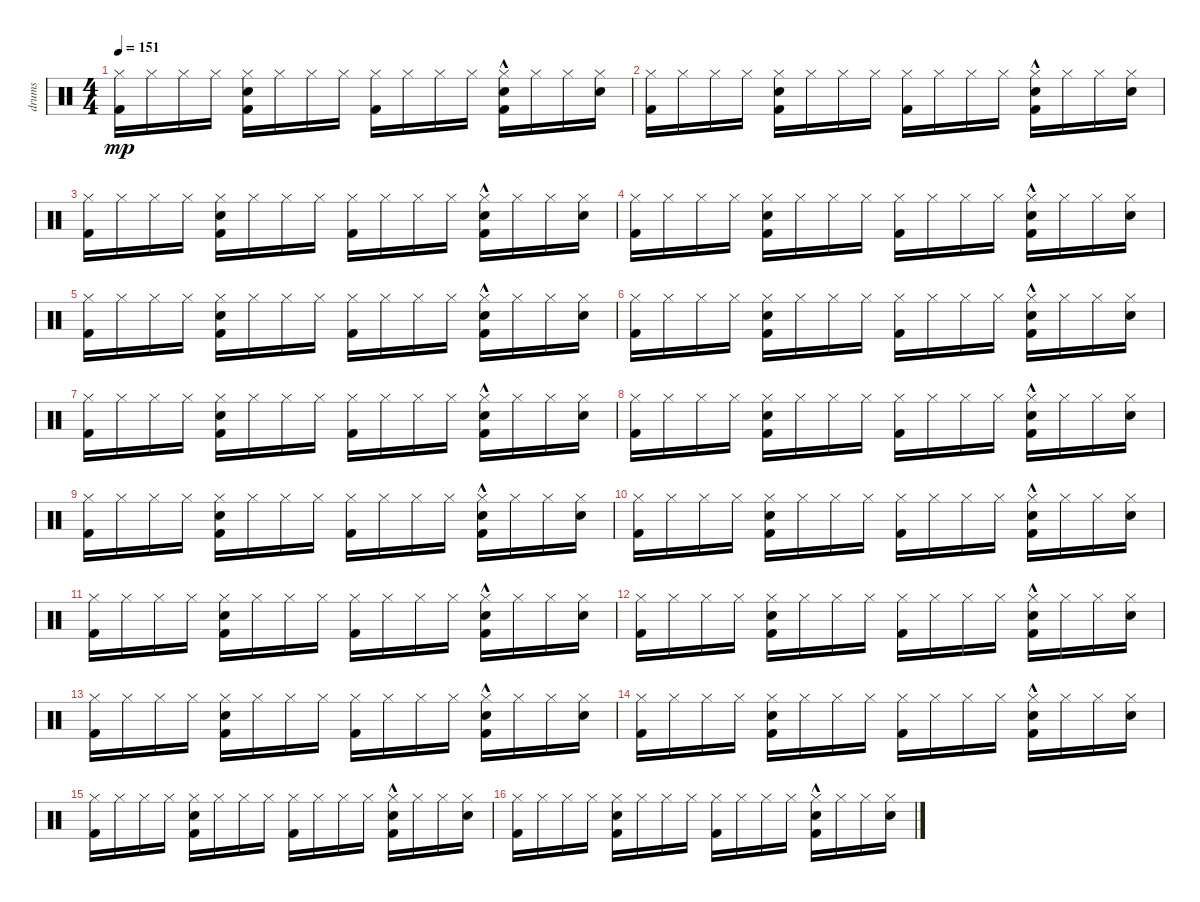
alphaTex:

\track ("drums" "drums") {instrument percussion}
\staff {score}
\articulation defaults
\ts (4 4)
\tempo 151
\clef neutral
\ks c
("Hi-Hat (closed)" "Kick (hit) 2").16{dy mp} "Hi-Hat (closed)".16 "Hi-Hat (closed)".16 "Hi-Hat (closed)".16 ("Hi-Hat (closed)" "Kick (hit) 2" "Snare (hit) 2").16 "Hi-Hat (closed)".16 "Hi-Hat (closed)".16 "Hi-Hat (closed)".16 ("Hi-Hat (closed)" "Kick (hit) 2").16 "Hi-Hat (closed)".16 "Hi-Hat (closed)".16 "Hi-Hat (closed)".16 ("Hi-Hat (closed)" "Kick (hit) 2"{hac} "Snare (hit) 2"{hac}).16 "Hi-Hat (closed)".16 "Hi-Hat (closed)".16 ("Hi-Hat (closed)" "Snare (hit) 2").16 |
("Hi-Hat (closed)" "Kick (hit) 2").16 "Hi-Hat (closed)".16 "Hi-Hat (closed)".16 "Hi-Hat (closed)".16 ("Hi-Hat (closed)" "Kick (hit) 2" "Snare (hit) 2").16 "Hi-Hat (closed)".16 "Hi-Hat (closed)".16 "Hi-Hat (closed)".16 ("Hi-Hat (closed)" "Kick (hit) 2").16 "Hi-Hat (closed)".16 "Hi-Hat (closed)".16 "Hi-Hat (closed)".16 ("Hi-Hat (closed)" "Kick (hit) 2"{hac} "Snare (hit) 2"{hac}).16 "Hi-Hat (closed)".16 "Hi-Hat (closed)".16 ("Hi-Hat (closed)" "Snare (hit) 2").16 |
("Hi-Hat (closed)" "Kick (hit) 2").16 "Hi-Hat (closed)".16 "Hi-Hat (closed)".16 "Hi-Hat (closed)".16 ("Hi-Hat (closed)" "Kick (hit) 2" "Snare (hit) 2").16 "Hi-Hat (closed)".16 "Hi-Hat (closed)".16 "Hi-Hat (closed)".16 ("Hi-Hat (closed)" "Kick (hit) 2").16 "Hi-Hat (closed)".16 "Hi-Hat (closed)".16 "Hi-Hat (closed)".16 ("Hi-Hat (closed)" "Kick (hit) 2"{hac} "Snare (hit) 2"{hac}).16 "Hi-Hat (closed)".16 "Hi-Hat (closed)".16 ("Hi-Hat (closed)" "Snare (hit) 2").16 |
("Hi-Hat (closed)" "Kick (hit) 2").16 "Hi-Hat (closed)".16 "Hi-Hat (closed)".16 "Hi-Hat (closed)".16 ("Hi-Hat (closed)" "Kick (hit) 2" "Snare (hit) 2").16 "Hi-Hat (closed)".16 "Hi-Hat (closed)".16 "Hi-Hat (closed)".16 ("Hi-Hat (closed)" "Kick (hit) 2").16 "Hi-Hat (closed)".16 "Hi-Hat (closed)".16 "Hi-Hat (closed)".16 ("Hi-Hat (closed)" "Kick (hit) 2"{hac} "Snare (hit) 2"{hac}).16 "Hi-Hat (closed)".16 "Hi-Hat (closed)".16 ("Hi-Hat (closed)" "Snare (hit) 2").16 |
("Hi-Hat (closed)" "Kick (hit) 2").16 "Hi-Hat (closed)".16 "Hi-Hat (closed)".16 "Hi-Hat (closed)".16 ("Hi-Hat (closed)" "Kick (hit) 2" "Snare (hit) 2").16 "Hi-Hat (closed)".16 "Hi-Hat (closed)".16 "Hi-Hat (closed)".16 ("Hi-Hat (closed)" "Kick (hit) 2").16 "Hi-Hat (closed)".16 "Hi-Hat (closed)".16 "Hi-Hat (closed)".16 ("Hi-Hat (closed)" "Kick (hit) 2"{hac} "Snare (hit) 2"{hac}).16 "Hi-Hat (closed)".16 "Hi-Hat (closed)".16 ("Hi-Hat (closed)" "Snare (hit) 2").16 |
("Hi-Hat (closed)" "Kick (hit) 2").16 "Hi-Hat (closed)".16 "Hi-Hat (closed)".16 "Hi-Hat (closed)".16 ("Hi-Hat (closed)" "Kick (hit) 2" "Snare (hit) 2").16 "Hi-Hat (closed)".16 "Hi-Hat (closed)".16 "Hi-Hat (closed)".16 ("Hi-Hat (closed)" "Kick (hit) 2").16 "Hi-Hat (closed)".16 "Hi-Hat (closed)".16 "Hi-Hat (closed)".16 ("Hi-Hat (closed)" "Kick (hit) 2"{hac} "Snare (hit) 2"{hac}).16 "Hi-Hat (closed)".16 "Hi-Hat (closed)".16 ("Hi-Hat (closed)" "Snare (hit) 2").16 |
("Hi-Hat (closed)" "Kick (hit) 2").16 "Hi-Hat (closed)".16 "Hi-Hat (closed)".16 "Hi-Hat (closed)".16 ("Hi-Hat (closed)" "Kick (hit) 2" "Snare (hit) 2").16 "Hi-Hat (closed)".16 "Hi-Hat (closed)".16 "Hi-Hat (closed)".16 ("Hi-Hat (closed)" "Kick (hit) 2").16 "Hi-Hat (closed)".16 "Hi-Hat (closed)".16 "Hi-Hat (closed)".16 ("Hi-Hat (closed)" "Kick (hit) 2"{hac} "Snare (hit) 2"{hac}).16 "Hi-Hat (closed)".16 "Hi-Hat (closed)".16 ("Hi-Hat (closed)" "Snare (hit) 2").16 |
("Hi-Hat (closed)" "Kick (hit) 2").16 "Hi-Hat (closed)".16 "Hi-Hat (closed)".16 "Hi-Hat (closed)".16 ("Hi-Hat (closed)" "Kick (hit) 2" "Snare (hit) 2").16 "Hi-Hat (closed)".16 "Hi-Hat (closed)".16 "Hi-Hat (closed)".16 ("Hi-Hat (closed)" "Kick (hit) 2").16 "Hi-Hat (closed)".16 "Hi-Hat (closed)".16 "Hi-Hat (closed)".16 ("Hi-Hat (closed)" "Kick (hit) 2"{hac} "Snare (hit) 2"{hac}).16 "Hi-Hat (closed)".16 "Hi-Hat (closed)".16 ("Hi-Hat (closed)" "Snare (hit) 2").16 |
("Hi-Hat (closed)" "Kick (hit) 2").16 "Hi-Hat (closed)".16 "Hi-Hat (closed)".16 "Hi-Hat (closed)".16 ("Hi-Hat (closed)" "Kick (hit) 2" "Snare (hit) 2").16 "Hi-Hat (closed)".16 "Hi-Hat (closed)".16 "Hi-Hat (closed)".16 ("Hi-Hat (closed)" "Kick (hit) 2").16 "Hi-Hat (closed)".16 "Hi-Hat (closed)".16 "Hi-Hat (closed)".16 ("Hi-Hat (closed)" "Kick (hit) 2"{hac} "Snare (hit) 2"{hac}).16 "Hi-Hat (closed)".16 "Hi-Hat (closed)".16 ("Hi-Hat (closed)" "Snare (hit) 2").16 |
("Hi-Hat (closed)" "Kick (hit) 2").16 "Hi-Hat (closed)".16 "Hi-Hat (closed)".16 "Hi-Hat (closed)".16 ("Hi-Hat (closed)" "Kick (hit) 2" "Snare (hit) 2").16 "Hi-Hat (closed)".16 "Hi-Hat (closed)".16 "Hi-Hat (closed)".16 ("Hi-Hat (closed)" "Kick (hit) 2").16 "Hi-Hat (closed)".16 "Hi-Hat (closed)".16 "Hi-Hat (closed)".16 ("Hi-Hat (closed)" "Kick (hit) 2"{hac} "Snare (hit) 2"{hac}).16 "Hi-Hat (closed)".16 "Hi-Hat (closed)".16 ("Hi-Hat (closed)" "Snare (hit) 2").16 |
("Hi-Hat (closed)" "Kick (hit) 2").16 "Hi-Hat (closed)".16 "Hi-Hat (closed)".16 "Hi-Hat (closed)".16 ("Hi-Hat (closed)" "Kick (hit) 2" "Snare (hit) 2").16 "Hi-Hat (closed)".16 "Hi-Hat (closed)".16 "Hi-Hat (closed)".16 ("Hi-Hat (closed)" "Kick (hit) 2").16 "Hi-Hat (closed)".16 "Hi-Hat (closed)".16 "Hi-Hat (closed)".16 ("Hi-Hat (closed)" "Kick (hit) 2"{hac} "Snare (hit) 2"{hac}).16 "Hi-Hat (closed)".16 "Hi-Hat (closed)".16 ("Hi-Hat (closed)" "Snare (hit) 2").16 |
("Hi-Hat (closed)" "Kick (hit) 2").16 "Hi-Hat (closed)".16 "Hi-Hat (closed)".16 "Hi-Hat (closed)".16 ("Hi-Hat (closed)" "Kick (hit) 2" "Snare (hit) 2").16 "Hi-Hat (closed)".16 "Hi-Hat (closed)".16 "Hi-Hat (closed)".16 ("Hi-Hat (closed)" "Kick (hit) 2").16 "Hi-Hat (closed)".16 "Hi-Hat (closed)".16 "Hi-Hat (closed)".16 ("Hi-Hat (closed)" "Kick (hit) 2"{hac} "Snare (hit) 2"{hac}).16 "Hi-Hat (closed)".16 "Hi-Hat (closed)".16 ("Hi-Hat (closed)" "Snare (hit) 2").16 |
("Hi-Hat (closed)" "Kick (hit) 2").16 "Hi-Hat (closed)".16 "Hi-Hat (closed)".16 "Hi-Hat (closed)".16 ("Hi-Hat (closed)" "Kick (hit) 2" "Snare (hit) 2").16 "Hi-Hat (closed)".16 "Hi-Hat (closed)".16 "Hi-Hat (closed)".16 ("Hi-Hat (closed)" "Kick (hit) 2").16 "Hi-Hat (closed)".16 "Hi-Hat (closed)".16 "Hi-Hat (closed)".16 ("Hi-Hat (closed)" "Kick (hit) 2"{hac} "Snare (hit) 2"{hac}).16 "Hi-Hat (closed)".16 "Hi-Hat (closed)".16 ("Hi-Hat (closed)" "Snare (hit) 2").16 |
("Hi-Hat (closed)" "Kick (hit) 2").16 "Hi-Hat (closed)".16 "Hi-Hat (closed)".16 "Hi-Hat (closed)".16 ("Hi-Hat (closed)" "Kick (hit) 2" "Snare (hit) 2").16 "Hi-Hat (closed)".16 "Hi-Hat (closed)".16 "Hi-Hat (closed)".16 ("Hi-Hat (closed)" "Kick (hit) 2").16 "Hi-Hat (closed)".16 "Hi-Hat (closed)".16 "Hi-Hat (closed)".16 ("Hi-Hat (closed)" "Kick (hit) 2"{hac} "Snare (hit) 2"{hac}).16 "Hi-Hat (closed)".16 "Hi-Hat (closed)".16 ("Hi-Hat (closed)" "Snare (hit) 2").16 |
("Hi-Hat (closed)" "Kick (hit) 2").16 "Hi-Hat (closed)".16 "Hi-Hat (closed)".16 "Hi-Hat (closed)".16 ("Hi-Hat (closed)" "Kick (hit) 2" "Snare (hit) 2").16 "Hi-Hat (closed)".16 "Hi-Hat (closed)".16 "Hi-Hat (closed)".16 ("Hi-Hat (closed)" "Kick (hit) 2").16 "Hi-Hat (closed)".16 "Hi-Hat (closed)".16 "Hi-Hat (closed)".16 ("Hi-Hat (closed)" "Kick (hit) 2"{hac} "Snare (hit) 2"{hac}).16 "Hi-Hat (closed)".16 "Hi-Hat (closed)".16 ("Hi-Hat (closed)" "Snare (hit) 2").16 |
("Hi-Hat (closed)" "Kick (hit) 2").16 "Hi-Hat (closed)".16 "Hi-Hat (closed)".16 "Hi-Hat (closed)".16 ("Hi-Hat (closed)" "Kick (hit) 2" "Snare (hit) 2").16 "Hi-Hat (closed)".16 "Hi-Hat (closed)".16 "Hi-Hat (closed)".16 ("Hi-Hat (closed)" "Kick (hit) 2").16 "Hi-Hat (closed)".16 "Hi-Hat (closed)".16 "Hi-Hat (closed)".16 ("Hi-Hat (closed)" "Kick (hit) 2"{hac} "Snare (hit) 2"{hac}).16 "Hi-Hat (closed)".16 "Hi-Hat (closed)".16 ("Hi-Hat (closed)" "Snare (hit) 2").16
